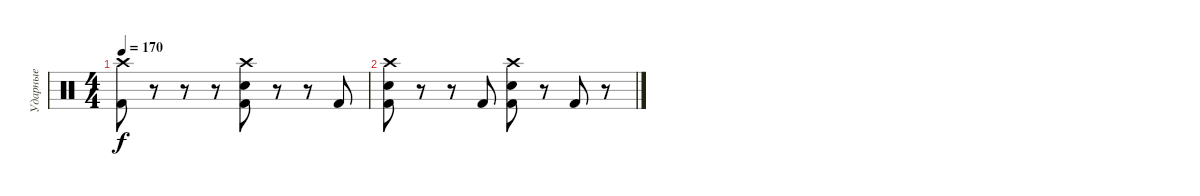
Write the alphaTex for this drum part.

\track ("Ударные" "Ударные") {instrument percussion}
\staff {score}
\articulation defaults
\ts (4 4)
\tempo 170
\clef neutral
\ks c
("Crash high (hit)" "Kick (hit) 2").8{dy f} r.8 r.8 r.8 ("Crash high (hit)" "Electric Snare (hit)" "Kick (hit) 2").8 r.8 r.8 "Kick (hit) 2".8 |
("Crash high (hit)" "Electric Snare (hit)" "Kick (hit) 2").8 r.8 r.8 "Kick (hit) 2".8 ("Crash high (hit)" "Electric Snare (hit)" "Kick (hit) 2").8 r.8 "Kick (hit) 2".8 r.8
